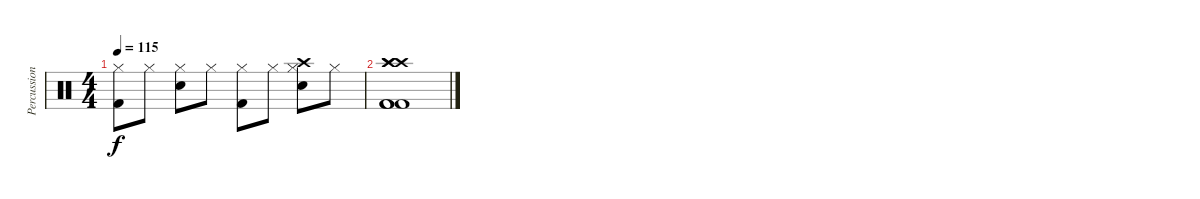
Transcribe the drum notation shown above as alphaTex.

\track ("Percussion" "Percussion") {instrument percussion}
\staff {score}
\articulation defaults
\ts (4 4)
\tempo 115
\clef neutral
\ks c
("Hi-Hat (closed)" "Kick (hit) 2").8{dy f} "Hi-Hat (closed)".8 ("Hi-Hat (closed)" "Electric Snare (hit)").8 "Hi-Hat (closed)".8 ("Hi-Hat (closed)" "Kick (hit) 2").8 "Hi-Hat (closed)".8 ("Hi-Hat (closed)" "Electric Snare (hit)" "Crash high (hit)").8 "Hi-Hat (closed)".8 |
("Kick (hit) 2" "Kick (hit) 2" "Kick (hit) 2" "Crash high (hit)" "Crash high (hit)" "Crash high (hit)").1
